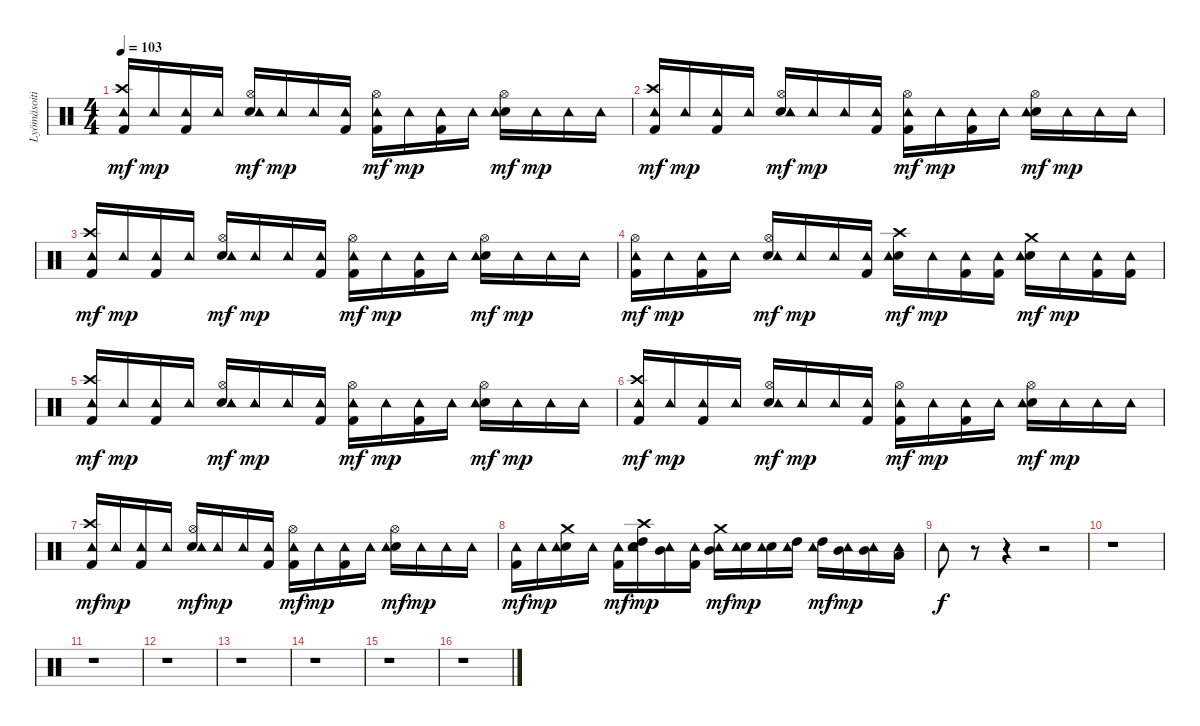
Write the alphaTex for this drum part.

\track ("Lyömäsoitin" "Lyömäsoiti") {instrument percussion}
\staff {score}
\articulation defaults
\ts (4 4)
\tempo 103
\clef neutral
\ks c
("Kick (hit) 2" "Crash high (hit)" "Tambourine (hit)").16{dy mf} "Tambourine (hit)".16{dy mp} ("Kick (hit) 2" "Tambourine (hit)").16 "Tambourine (hit)".16 ("Hi-Hat (open)" "Snare (hit) 2" "Tambourine (hit)").16{dy mf} "Tambourine (hit)".16{dy mp} "Tambourine (hit)".16 ("Kick (hit) 2" "Tambourine (hit)").16 ("Kick (hit) 2" "Hi-Hat (open)" "Tambourine (hit)").16{dy mf} "Tambourine (hit)".16{dy mp} ("Kick (hit) 2" "Tambourine (hit)").16 "Tambourine (hit)".16 ("Hi-Hat (open)" "Snare (hit) 2" "Tambourine (hit)").16{dy mf} "Tambourine (hit)".16{dy mp} "Tambourine (hit)".16 "Tambourine (hit)".16 |
("Kick (hit) 2" "Crash high (hit)" "Tambourine (hit)").16{dy mf} "Tambourine (hit)".16{dy mp} ("Kick (hit) 2" "Tambourine (hit)").16 "Tambourine (hit)".16 ("Hi-Hat (open)" "Snare (hit) 2" "Tambourine (hit)").16{dy mf} "Tambourine (hit)".16{dy mp} "Tambourine (hit)".16 ("Kick (hit) 2" "Tambourine (hit)").16 ("Kick (hit) 2" "Hi-Hat (open)" "Tambourine (hit)").16{dy mf} "Tambourine (hit)".16{dy mp} ("Kick (hit) 2" "Tambourine (hit)").16 "Tambourine (hit)".16 ("Hi-Hat (open)" "Snare (hit) 2" "Tambourine (hit)").16{dy mf} "Tambourine (hit)".16{dy mp} "Tambourine (hit)".16 "Tambourine (hit)".16 |
("Kick (hit) 2" "Crash high (hit)" "Tambourine (hit)").16{dy mf} "Tambourine (hit)".16{dy mp} ("Kick (hit) 2" "Tambourine (hit)").16 "Tambourine (hit)".16 ("Hi-Hat (open)" "Snare (hit) 2" "Tambourine (hit)").16{dy mf} "Tambourine (hit)".16{dy mp} "Tambourine (hit)".16 ("Kick (hit) 2" "Tambourine (hit)").16 ("Kick (hit) 2" "Hi-Hat (open)" "Tambourine (hit)").16{dy mf} "Tambourine (hit)".16{dy mp} ("Kick (hit) 2" "Tambourine (hit)").16 "Tambourine (hit)".16 ("Hi-Hat (open)" "Snare (hit) 2" "Tambourine (hit)").16{dy mf} "Tambourine (hit)".16{dy mp} "Tambourine (hit)".16 "Tambourine (hit)".16 |
("Kick (hit) 2" "Hi-Hat (open)" "Tambourine (hit)").16{dy mf} "Tambourine (hit)".16{dy mp} ("Kick (hit) 2" "Tambourine (hit)").16 "Tambourine (hit)".16 ("Hi-Hat (open)" "Snare (hit) 2" "Tambourine (hit)").16{dy mf} "Tambourine (hit)".16{dy mp} "Tambourine (hit)".16 ("Kick (hit) 2" "Tambourine (hit)").16 ("Crash high (hit)" "Snare (hit) 2" "Tambourine (hit)").16{dy mf} "Tambourine (hit)".16{dy mp} ("Kick (hit) 2" "Tambourine (hit)").16 ("Kick (hit) 2" "Tambourine (hit)").16 ("Crash medium (hit)" "Snare (hit) 2" "Tambourine (hit)").16{dy mf} "Tambourine (hit)".16{dy mp} ("Kick (hit) 2" "Tambourine (hit)").16 ("Kick (hit) 2" "Tambourine (hit)").16 |
("Kick (hit) 2" "Crash high (hit)" "Tambourine (hit)").16{dy mf} "Tambourine (hit)".16{dy mp} ("Kick (hit) 2" "Tambourine (hit)").16 "Tambourine (hit)".16 ("Hi-Hat (open)" "Snare (hit) 2" "Tambourine (hit)").16{dy mf} "Tambourine (hit)".16{dy mp} "Tambourine (hit)".16 ("Kick (hit) 2" "Tambourine (hit)").16 ("Kick (hit) 2" "Hi-Hat (open)" "Tambourine (hit)").16{dy mf} "Tambourine (hit)".16{dy mp} ("Kick (hit) 2" "Tambourine (hit)").16 "Tambourine (hit)".16 ("Hi-Hat (open)" "Snare (hit) 2" "Tambourine (hit)").16{dy mf} "Tambourine (hit)".16{dy mp} "Tambourine (hit)".16 "Tambourine (hit)".16 |
("Kick (hit) 2" "Crash high (hit)" "Tambourine (hit)").16{dy mf} "Tambourine (hit)".16{dy mp} ("Kick (hit) 2" "Tambourine (hit)").16 "Tambourine (hit)".16 ("Hi-Hat (open)" "Snare (hit) 2" "Tambourine (hit)").16{dy mf} "Tambourine (hit)".16{dy mp} "Tambourine (hit)".16 ("Kick (hit) 2" "Tambourine (hit)").16 ("Kick (hit) 2" "Hi-Hat (open)" "Tambourine (hit)").16{dy mf} "Tambourine (hit)".16{dy mp} ("Kick (hit) 2" "Tambourine (hit)").16 "Tambourine (hit)".16 ("Hi-Hat (open)" "Snare (hit) 2" "Tambourine (hit)").16{dy mf} "Tambourine (hit)".16{dy mp} "Tambourine (hit)".16 "Tambourine (hit)".16 |
("Kick (hit) 2" "Crash high (hit)" "Tambourine (hit)").16{dy mf} "Tambourine (hit)".16{dy mp} ("Kick (hit) 2" "Tambourine (hit)").16 "Tambourine (hit)".16 ("Hi-Hat (open)" "Snare (hit) 2" "Tambourine (hit)").16{dy mf} "Tambourine (hit)".16{dy mp} "Tambourine (hit)".16 ("Kick (hit) 2" "Tambourine (hit)").16 ("Kick (hit) 2" "Hi-Hat (open)" "Tambourine (hit)").16{dy mf} "Tambourine (hit)".16{dy mp} ("Kick (hit) 2" "Tambourine (hit)").16 "Tambourine (hit)".16 ("Hi-Hat (open)" "Snare (hit) 2" "Tambourine (hit)").16{dy mf} "Tambourine (hit)".16{dy mp} "Tambourine (hit)".16 "Tambourine (hit)".16 |
("Kick (hit) 2" "Tambourine (hit)").16{dy mf} "Tambourine (hit)".16{dy mp} ("Crash medium (hit)" "Snare (hit) 2" "Tambourine (hit)").16 "Tambourine (hit)".16 ("Kick (hit) 2" "Tambourine (hit)").16{dy mf} ("Crash high (hit)" "High Tom (hit)" "Snare (hit) 2" "Tambourine (hit)").16{dy mp} ("Mid Tom (hit)" "Tambourine (hit)").16 ("Kick (hit) 2" "Tambourine (hit)").16 ("Crash medium (hit)" "Mid Tom (hit)" "Tambourine (hit)").16{dy mf} ("Snare (hit) 2" "Tambourine (hit)").16{dy mp} ("Snare (hit) 2" "Tambourine (hit)").16 ("High Tom (hit)" "Tambourine (hit)").16 ("High Tom (hit)" "Tambourine (hit)").16{dy mf} ("Mid Tom (hit)" "Tambourine (hit)").16{dy mp} ("Mid Tom (hit)" "Tambourine (hit)").16 ("Low Tom (hit)" "Tambourine (hit)").16 |
"Tambourine (hit)".8{dy f} r.8 r.4 r.2 |
r.1 |
r.1 |
r.1 |
r.1 |
r.1 |
r.1 |
r.1
